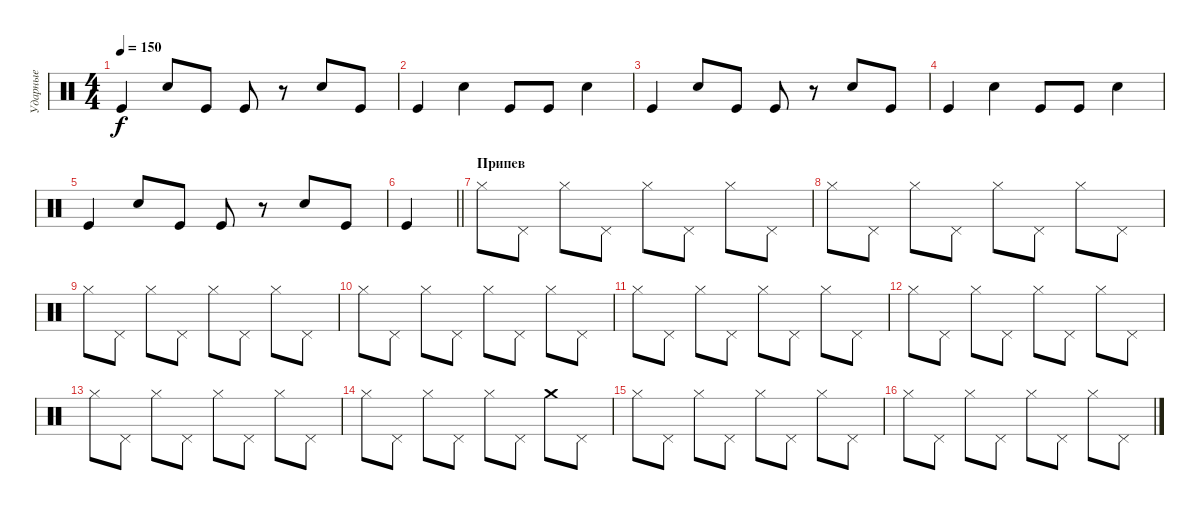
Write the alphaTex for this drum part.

\track ("Ударные" "Ударные") {instrument percussion}
\staff {score}
\articulation defaults
\ts (4 4)
\tempo 150
\clef neutral
\ks c "Kick (hit)".4{dy f} "Snare (hit) 2".8 "Kick (hit)".8 "Kick (hit)".8
r.8 "Snare (hit) 2".8 "Kick (hit)".8 |
"Kick (hit)".4 "Snare (hit) 2".4 "Kick (hit)".8 "Kick (hit)".8 "Snare (hit) 2".4 |
"Kick (hit)".4 "Snare (hit) 2".8 "Kick (hit)".8 "Kick (hit)".8 r.8 "Snare (hit) 2".8 "Kick (hit)".8 |
"Kick (hit)".4 "Snare (hit) 2".4 "Kick (hit)".8 "Kick (hit)".8 "Snare (hit) 2".4 |
"Kick (hit)".4 "Snare (hit) 2".8 "Kick (hit)".8 "Kick (hit)".8 r.8 "Snare (hit) 2".8 "Kick (hit)".8 |
\barLineRight lightlight "Kick (hit)".4
|
\section ("" "Припев")
"Hi-Hat (closed)".8 "Pedal Hi-Hat (hit)".8 "Hi-Hat (closed)".8 "Pedal Hi-Hat (hit)".8 "Hi-Hat (closed)".8 "Pedal Hi-Hat (hit)".8 "Hi-Hat (closed)".8 "Pedal Hi-Hat (hit)".8 |
"Hi-Hat (closed)".8 "Pedal Hi-Hat (hit)".8 "Hi-Hat (closed)".8 "Pedal Hi-Hat (hit)".8 "Hi-Hat (closed)".8 "Pedal Hi-Hat (hit)".8 "Hi-Hat (closed)".8 "Pedal Hi-Hat (hit)".8 |
"Hi-Hat (closed)".8 "Pedal Hi-Hat (hit)".8 "Hi-Hat (closed)".8 "Pedal Hi-Hat (hit)".8 "Hi-Hat (closed)".8 "Pedal Hi-Hat (hit)".8 "Hi-Hat (closed)".8 "Pedal Hi-Hat (hit)".8 |
"Hi-Hat (closed)".8 "Pedal Hi-Hat (hit)".8 "Hi-Hat (closed)".8 "Pedal Hi-Hat (hit)".8 "Hi-Hat (closed)".8 "Pedal Hi-Hat (hit)".8 "Hi-Hat (closed)".8 "Pedal Hi-Hat (hit)".8 |
"Hi-Hat (closed)".8 "Pedal Hi-Hat (hit)".8 "Hi-Hat (closed)".8 "Pedal Hi-Hat (hit)".8 "Hi-Hat (closed)".8 "Pedal Hi-Hat (hit)".8 "Hi-Hat (closed)".8 "Pedal Hi-Hat (hit)".8 |
"Hi-Hat (closed)".8 "Pedal Hi-Hat (hit)".8 "Hi-Hat (closed)".8 "Pedal Hi-Hat (hit)".8 "Hi-Hat (closed)".8 "Pedal Hi-Hat (hit)".8 "Hi-Hat (closed)".8 "Pedal Hi-Hat (hit)".8 |
"Hi-Hat (closed)".8 "Pedal Hi-Hat (hit)".8 "Hi-Hat (closed)".8 "Pedal Hi-Hat (hit)".8 "Hi-Hat (closed)".8 "Pedal Hi-Hat (hit)".8 "Hi-Hat (closed)".8 "Pedal Hi-Hat (hit)".8 |
"Hi-Hat (closed)".8 "Pedal Hi-Hat (hit)".8 "Hi-Hat (closed)".8 "Pedal Hi-Hat (hit)".8 "Hi-Hat (closed)".8 "Pedal Hi-Hat (hit)".8 "Crash medium (hit)".8 "Pedal Hi-Hat (hit)".8 |
"Hi-Hat (closed)".8 "Pedal Hi-Hat (hit)".8 "Hi-Hat (closed)".8 "Pedal Hi-Hat (hit)".8 "Hi-Hat (closed)".8 "Pedal Hi-Hat (hit)".8 "Hi-Hat (closed)".8 "Pedal Hi-Hat (hit)".8 |
"Hi-Hat (closed)".8 "Pedal Hi-Hat (hit)".8 "Hi-Hat (closed)".8 "Pedal Hi-Hat (hit)".8 "Hi-Hat (closed)".8 "Pedal Hi-Hat (hit)".8 "Hi-Hat (closed)".8 "Pedal Hi-Hat (hit)".8
